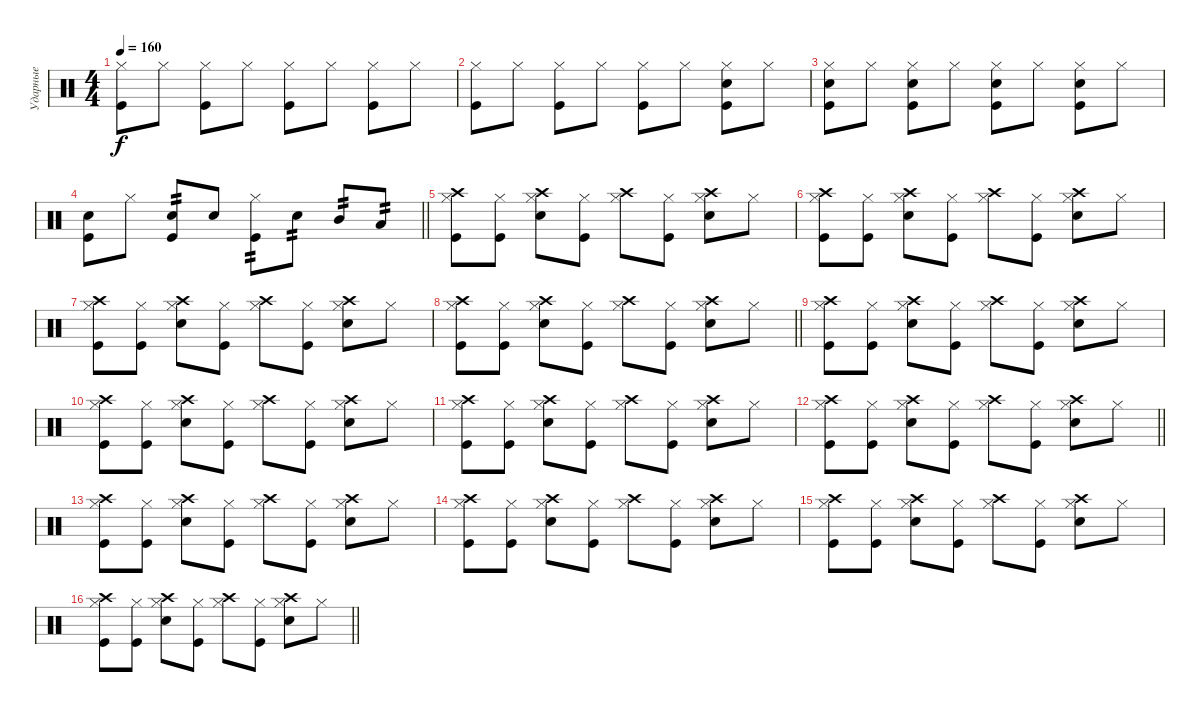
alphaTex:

\track ("Ударные" "Ударные") {instrument percussion}
\staff {score}
\articulation defaults
\ts (4 4)
\tempo 160
\clef neutral
\ks c
("Kick (hit)" "Hi-Hat (closed)").8{dy f} "Hi-Hat (closed)".8 ("Kick (hit)" "Hi-Hat (closed)").8 "Hi-Hat (closed)".8 ("Kick (hit)" "Hi-Hat (closed)").8 "Hi-Hat (closed)".8 ("Kick (hit)" "Hi-Hat (closed)").8 "Hi-Hat (closed)".8 |
("Kick (hit)" "Hi-Hat (closed)").8 "Hi-Hat (closed)".8 ("Kick (hit)" "Hi-Hat (closed)").8 "Hi-Hat (closed)".8 ("Kick (hit)" "Hi-Hat (closed)").8 "Hi-Hat (closed)".8 ("Kick (hit)" "Hi-Hat (closed)" "Snare (hit) 2").8 "Hi-Hat (closed)".8 |
("Kick (hit)" "Hi-Hat (closed)" "Snare (hit) 2").8 "Hi-Hat (closed)".8 ("Kick (hit)" "Hi-Hat (closed)" "Snare (hit) 2").8 "Hi-Hat (closed)".8 ("Kick (hit)" "Hi-Hat (closed)" "Snare (hit) 2").8 "Hi-Hat (closed)".8 ("Kick (hit)" "Hi-Hat (closed)" "Snare (hit) 2").8 "Hi-Hat (closed)".8 |
\barLineRight lightlight
("Kick (hit)" "Snare (hit) 2").8 "Hi-Hat (closed)".8 ("Kick (hit)" "Snare (hit) 2").8{tp 2} "Snare (hit) 2".8 ("Kick (hit)" "Hi-Hat (closed)").8{tp 2} "Snare (hit) 2".8{tp 2} "Mid Tom (hit)".8{tp 2} "Low Tom (hit)".8{tp 2} |
("Kick (hit)" "Hi-Hat (closed)" "Crash high (hit)").8 ("Kick (hit)" "Hi-Hat (closed)").8 ("Hi-Hat (closed)" "Snare (hit) 2" "Crash high (hit)").8 ("Kick (hit)" "Hi-Hat (closed)").8 ("Hi-Hat (closed)" "Crash high (hit)").8 ("Kick (hit)" "Hi-Hat (closed)").8 ("Hi-Hat (closed)" "Snare (hit) 2" "Crash high (hit)").8 "Hi-Hat (closed)".8 |
("Kick (hit)" "Hi-Hat (closed)" "Crash high (hit)").8 ("Kick (hit)" "Hi-Hat (closed)").8 ("Hi-Hat (closed)" "Snare (hit) 2" "Crash high (hit)").8 ("Kick (hit)" "Hi-Hat (closed)").8 ("Hi-Hat (closed)" "Crash high (hit)").8 ("Kick (hit)" "Hi-Hat (closed)").8 ("Hi-Hat (closed)" "Snare (hit) 2" "Crash high (hit)").8 "Hi-Hat (closed)".8 |
("Kick (hit)" "Hi-Hat (closed)" "Crash high (hit)").8 ("Kick (hit)" "Hi-Hat (closed)").8 ("Hi-Hat (closed)" "Snare (hit) 2" "Crash high (hit)").8 ("Kick (hit)" "Hi-Hat (closed)").8 ("Hi-Hat (closed)" "Crash high (hit)").8 ("Kick (hit)" "Hi-Hat (closed)").8 ("Hi-Hat (closed)" "Snare (hit) 2" "Crash high (hit)").8 "Hi-Hat (closed)".8 |
\barLineRight lightlight
("Kick (hit)" "Hi-Hat (closed)" "Crash high (hit)").8 ("Kick (hit)" "Hi-Hat (closed)").8 ("Hi-Hat (closed)" "Snare (hit) 2" "Crash high (hit)").8 ("Kick (hit)" "Hi-Hat (closed)").8 ("Hi-Hat (closed)" "Crash high (hit)").8 ("Kick (hit)" "Hi-Hat (closed)").8 ("Hi-Hat (closed)" "Snare (hit) 2" "Crash high (hit)").8 "Hi-Hat (closed)".8 |
("Kick (hit)" "Hi-Hat (closed)" "Crash high (hit)").8 ("Kick (hit)" "Hi-Hat (closed)").8 ("Hi-Hat (closed)" "Snare (hit) 2" "Crash high (hit)").8 ("Kick (hit)" "Hi-Hat (closed)").8 ("Hi-Hat (closed)" "Crash high (hit)").8 ("Kick (hit)" "Hi-Hat (closed)").8 ("Hi-Hat (closed)" "Snare (hit) 2" "Crash high (hit)").8 "Hi-Hat (closed)".8 |
("Kick (hit)" "Hi-Hat (closed)" "Crash high (hit)").8 ("Kick (hit)" "Hi-Hat (closed)").8 ("Hi-Hat (closed)" "Snare (hit) 2" "Crash high (hit)").8 ("Kick (hit)" "Hi-Hat (closed)").8 ("Hi-Hat (closed)" "Crash high (hit)").8 ("Kick (hit)" "Hi-Hat (closed)").8 ("Hi-Hat (closed)" "Snare (hit) 2" "Crash high (hit)").8 "Hi-Hat (closed)".8 |
("Kick (hit)" "Hi-Hat (closed)" "Crash high (hit)").8 ("Kick (hit)" "Hi-Hat (closed)").8 ("Hi-Hat (closed)" "Snare (hit) 2" "Crash high (hit)").8 ("Kick (hit)" "Hi-Hat (closed)").8 ("Hi-Hat (closed)" "Crash high (hit)").8 ("Kick (hit)" "Hi-Hat (closed)").8 ("Hi-Hat (closed)" "Snare (hit) 2" "Crash high (hit)").8 "Hi-Hat (closed)".8 |
\barLineRight lightlight
("Kick (hit)" "Hi-Hat (closed)" "Crash high (hit)").8 ("Kick (hit)" "Hi-Hat (closed)").8 ("Hi-Hat (closed)" "Snare (hit) 2" "Crash high (hit)").8 ("Kick (hit)" "Hi-Hat (closed)").8 ("Hi-Hat (closed)" "Crash high (hit)").8 ("Kick (hit)" "Hi-Hat (closed)").8 ("Hi-Hat (closed)" "Snare (hit) 2" "Crash high (hit)").8 "Hi-Hat (closed)".8 |
("Kick (hit)" "Hi-Hat (closed)" "Crash high (hit)").8 ("Kick (hit)" "Hi-Hat (closed)").8 ("Hi-Hat (closed)" "Snare (hit) 2" "Crash high (hit)").8 ("Kick (hit)" "Hi-Hat (closed)").8 ("Hi-Hat (closed)" "Crash high (hit)").8 ("Kick (hit)" "Hi-Hat (closed)").8 ("Hi-Hat (closed)" "Snare (hit) 2" "Crash high (hit)").8 "Hi-Hat (closed)".8 |
("Kick (hit)" "Hi-Hat (closed)" "Crash high (hit)").8 ("Kick (hit)" "Hi-Hat (closed)").8 ("Hi-Hat (closed)" "Snare (hit) 2" "Crash high (hit)").8 ("Kick (hit)" "Hi-Hat (closed)").8 ("Hi-Hat (closed)" "Crash high (hit)").8 ("Kick (hit)" "Hi-Hat (closed)").8 ("Hi-Hat (closed)" "Snare (hit) 2" "Crash high (hit)").8 "Hi-Hat (closed)".8 |
("Kick (hit)" "Hi-Hat (closed)" "Crash high (hit)").8 ("Kick (hit)" "Hi-Hat (closed)").8 ("Hi-Hat (closed)" "Snare (hit) 2" "Crash high (hit)").8 ("Kick (hit)" "Hi-Hat (closed)").8 ("Hi-Hat (closed)" "Crash high (hit)").8 ("Kick (hit)" "Hi-Hat (closed)").8 ("Hi-Hat (closed)" "Snare (hit) 2" "Crash high (hit)").8 "Hi-Hat (closed)".8 |
\barLineRight lightlight
("Kick (hit)" "Hi-Hat (closed)" "Crash high (hit)").8 ("Kick (hit)" "Hi-Hat (closed)").8 ("Hi-Hat (closed)" "Snare (hit) 2" "Crash high (hit)").8 ("Kick (hit)" "Hi-Hat (closed)").8 ("Hi-Hat (closed)" "Crash high (hit)").8 ("Kick (hit)" "Hi-Hat (closed)").8 ("Hi-Hat (closed)" "Snare (hit) 2" "Crash high (hit)").8 "Hi-Hat (closed)".8
